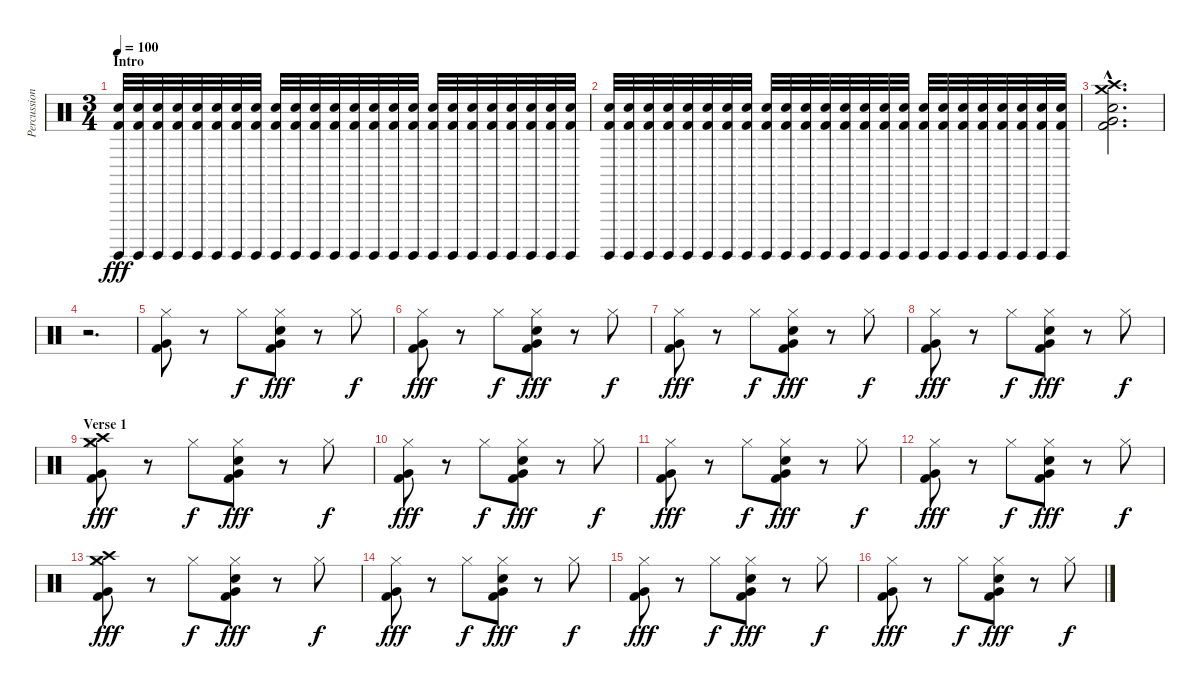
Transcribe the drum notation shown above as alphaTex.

\track ("Percussion" "Percussion") {instrument percussion}
\staff {score}
\articulation defaults
\ts (3 4)
\section ("" "Intro")
\tempo 100
\clef neutral
\ks c
("Snare (hit) 2" "Kick (hit) 2" "Surdo (hit)").32{dy fff volume 6} ("Snare (hit) 2" "Kick (hit) 2" "Surdo (hit)").32{volume 16} ("Snare (hit) 2" "Kick (hit) 2" "Surdo (hit)").32 ("Snare (hit) 2" "Kick (hit) 2" "Surdo (hit)").32 ("Snare (hit) 2" "Kick (hit) 2" "Surdo (hit)").32 ("Snare (hit) 2" "Kick (hit) 2" "Surdo (hit)").32 ("Snare (hit) 2" "Kick (hit) 2" "Surdo (hit)").32 ("Snare (hit) 2" "Kick (hit) 2" "Surdo (hit)").32 ("Snare (hit) 2" "Kick (hit) 2" "Surdo (hit)").32 ("Snare (hit) 2" "Kick (hit) 2" "Surdo (hit)").32 ("Snare (hit) 2" "Kick (hit) 2" "Surdo (hit)").32 ("Snare (hit) 2" "Kick (hit) 2" "Surdo (hit)").32 ("Snare (hit) 2" "Kick (hit) 2" "Surdo (hit)").32 ("Snare (hit) 2" "Kick (hit) 2" "Surdo (hit)").32 ("Snare (hit) 2" "Kick (hit) 2" "Surdo (hit)").32 ("Snare (hit) 2" "Kick (hit) 2" "Surdo (hit)").32 ("Snare (hit) 2" "Kick (hit) 2" "Surdo (hit)").32 ("Snare (hit) 2" "Kick (hit) 2" "Surdo (hit)").32 ("Snare (hit) 2" "Kick (hit) 2" "Surdo (hit)").32 ("Snare (hit) 2" "Kick (hit) 2" "Surdo (hit)").32 ("Snare (hit) 2" "Kick (hit) 2" "Surdo (hit)").32 ("Snare (hit) 2" "Kick (hit) 2" "Surdo (hit)").32 ("Snare (hit) 2" "Kick (hit) 2" "Surdo (hit)").32 ("Snare (hit) 2" "Kick (hit) 2" "Surdo (hit)").32 |
("Snare (hit) 2" "Kick (hit) 2" "Surdo (hit)").32 ("Snare (hit) 2" "Kick (hit) 2" "Surdo (hit)").32 ("Snare (hit) 2" "Kick (hit) 2" "Surdo (hit)").32 ("Snare (hit) 2" "Kick (hit) 2" "Surdo (hit)").32 ("Snare (hit) 2" "Kick (hit) 2" "Surdo (hit)").32 ("Snare (hit) 2" "Kick (hit) 2" "Surdo (hit)").32 ("Snare (hit) 2" "Kick (hit) 2" "Surdo (hit)").32 ("Snare (hit) 2" "Kick (hit) 2" "Surdo (hit)").32 ("Snare (hit) 2" "Kick (hit) 2" "Surdo (hit)").32 ("Snare (hit) 2" "Kick (hit) 2" "Surdo (hit)").32 ("Snare (hit) 2" "Kick (hit) 2" "Surdo (hit)").32 ("Snare (hit) 2" "Kick (hit) 2" "Surdo (hit)").32 ("Snare (hit) 2" "Kick (hit) 2" "Surdo (hit)").32 ("Snare (hit) 2" "Kick (hit) 2" "Surdo (hit)").32 ("Snare (hit) 2" "Kick (hit) 2" "Surdo (hit)").32 ("Snare (hit) 2" "Kick (hit) 2" "Surdo (hit)").32 ("Snare (hit) 2" "Kick (hit) 2" "Surdo (hit)").32 ("Snare (hit) 2" "Kick (hit) 2" "Surdo (hit)").32 ("Snare (hit) 2" "Kick (hit) 2" "Surdo (hit)").32 ("Snare (hit) 2" "Kick (hit) 2" "Surdo (hit)").32 ("Snare (hit) 2" "Kick (hit) 2" "Surdo (hit)").32 ("Snare (hit) 2" "Kick (hit) 2" "Surdo (hit)").32 ("Snare (hit) 2" "Kick (hit) 2" "Surdo (hit)").32 ("Snare (hit) 2" "Kick (hit) 2" "Surdo (hit)").32 |
("Snare (hit) 2"{hac} "Kick (hit) 2"{hac} "Very Low Tom (hit)"{hac} "Crash medium (hit)"{hac} "Crash high (hit)"{hac}).2{d} |
r.2{d} |
("Very Low Tom (hit)" "Kick (hit) 2" "Hi-Hat (closed)").8 r.8 "Hi-Hat (closed)".8{dy f} ("Snare (hit) 2" "Kick (hit) 2" "Very Low Tom (hit)" "Hi-Hat (closed)").8{dy fff} r.8 "Hi-Hat (closed)".8{dy f} |
("Very Low Tom (hit)" "Kick (hit) 2" "Hi-Hat (closed)").8{dy fff} r.8 "Hi-Hat (closed)".8{dy f} ("Snare (hit) 2" "Kick (hit) 2" "Very Low Tom (hit)" "Hi-Hat (closed)").8{dy fff} r.8 "Hi-Hat (closed)".8{dy f} |
("Very Low Tom (hit)" "Kick (hit) 2" "Hi-Hat (closed)").8{dy fff} r.8 "Hi-Hat (closed)".8{dy f} ("Snare (hit) 2" "Kick (hit) 2" "Very Low Tom (hit)" "Hi-Hat (closed)").8{dy fff} r.8 "Hi-Hat (closed)".8{dy f} |
("Very Low Tom (hit)" "Kick (hit) 2" "Hi-Hat (closed)").8{dy fff} r.8 "Hi-Hat (closed)".8{dy f} ("Snare (hit) 2" "Kick (hit) 2" "Very Low Tom (hit)" "Hi-Hat (closed)").8{dy fff} r.8 "Hi-Hat (closed)".8{dy f} |
\section ("" "Verse 1")
("Very Low Tom (hit)" "Kick (hit) 2" "Crash medium (hit)" "Crash high (hit)" "Hi-Hat (closed)").8{dy fff} r.8 "Hi-Hat (closed)".8{dy f} ("Snare (hit) 2" "Kick (hit) 2" "Very Low Tom (hit)" "Hi-Hat (closed)").8{dy fff} r.8 "Hi-Hat (closed)".8{dy f} |
("Very Low Tom (hit)" "Kick (hit) 2" "Hi-Hat (closed)").8{dy fff} r.8 "Hi-Hat (closed)".8{dy f} ("Snare (hit) 2" "Kick (hit) 2" "Very Low Tom (hit)" "Hi-Hat (closed)").8{dy fff} r.8 "Hi-Hat (closed)".8{dy f} |
("Very Low Tom (hit)" "Kick (hit) 2" "Hi-Hat (closed)").8{dy fff} r.8 "Hi-Hat (closed)".8{dy f} ("Snare (hit) 2" "Kick (hit) 2" "Very Low Tom (hit)" "Hi-Hat (closed)").8{dy fff} r.8 "Hi-Hat (closed)".8{dy f} |
("Very Low Tom (hit)" "Kick (hit) 2" "Hi-Hat (closed)").8{dy fff} r.8 "Hi-Hat (closed)".8{dy f} ("Snare (hit) 2" "Kick (hit) 2" "Very Low Tom (hit)" "Hi-Hat (closed)").8{dy fff} r.8 "Hi-Hat (closed)".8{dy f} |
("Very Low Tom (hit)" "Kick (hit) 2" "Crash medium (hit)" "Crash high (hit)" "Hi-Hat (closed)").8{dy fff} r.8 "Hi-Hat (closed)".8{dy f} ("Snare (hit) 2" "Kick (hit) 2" "Very Low Tom (hit)" "Hi-Hat (closed)").8{dy fff} r.8 "Hi-Hat (closed)".8{dy f} |
("Very Low Tom (hit)" "Kick (hit) 2" "Hi-Hat (closed)").8{dy fff} r.8 "Hi-Hat (closed)".8{dy f} ("Snare (hit) 2" "Kick (hit) 2" "Very Low Tom (hit)" "Hi-Hat (closed)").8{dy fff} r.8 "Hi-Hat (closed)".8{dy f} |
("Very Low Tom (hit)" "Kick (hit) 2" "Hi-Hat (closed)").8{dy fff} r.8 "Hi-Hat (closed)".8{dy f} ("Snare (hit) 2" "Kick (hit) 2" "Very Low Tom (hit)" "Hi-Hat (closed)").8{dy fff} r.8 "Hi-Hat (closed)".8{dy f} |
("Very Low Tom (hit)" "Kick (hit) 2" "Hi-Hat (closed)").8{dy fff} r.8 "Hi-Hat (closed)".8{dy f} ("Snare (hit) 2" "Kick (hit) 2" "Very Low Tom (hit)" "Hi-Hat (closed)").8{dy fff} r.8 "Hi-Hat (closed)".8{dy f}
